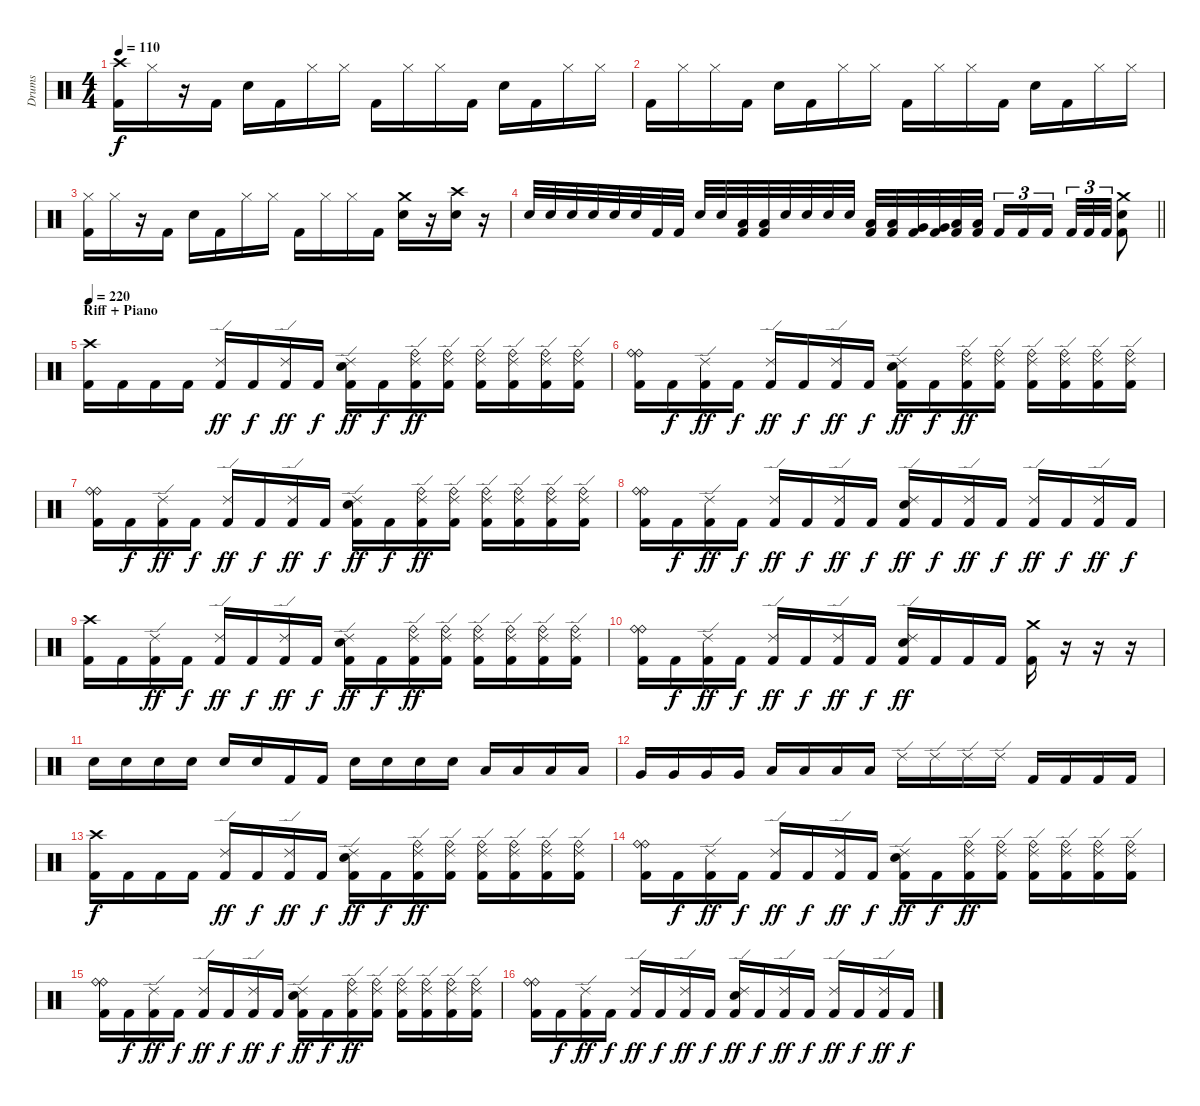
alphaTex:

\track ("Drums" "Drums") {instrument percussion}
\staff {score}
\articulation defaults
\ts (4 4)
\tempo 110
\clef neutral
\ks c
("Crash high (hit)" "Kick (hit) 2").16{dy f} "Hi-Hat (closed)".16 r.16 "Kick (hit) 2".16 "Electric Snare (hit)".16 "Kick (hit) 2".16 "Hi-Hat (closed)".16 "Hi-Hat (closed)".16 "Kick (hit) 2".16 "Hi-Hat (closed)".16 "Hi-Hat (closed)".16 "Kick (hit) 2".16 "Electric Snare (hit)".16 "Kick (hit) 2".16 "Hi-Hat (closed)".16 "Hi-Hat (closed)".16 |
"Kick (hit) 2".16 "Hi-Hat (closed)".16 "Hi-Hat (closed)".16 "Kick (hit) 2".16 "Electric Snare (hit)".16 "Kick (hit) 2".16 "Hi-Hat (closed)".16 "Hi-Hat (closed)".16 "Kick (hit) 2".16 "Hi-Hat (closed)".16 "Hi-Hat (closed)".16 "Kick (hit) 2".16 "Electric Snare (hit)".16 "Kick (hit) 2".16 "Hi-Hat (closed)".16 "Hi-Hat (closed)".16 |
("Hi-Hat (closed)" "Kick (hit) 2").16 "Hi-Hat (closed)".16 r.16 "Kick (hit) 2".16 "Electric Snare (hit)".16 "Kick (hit) 2".16 "Hi-Hat (closed)".16 "Hi-Hat (closed)".16 "Kick (hit) 2".16 "Hi-Hat (closed)".16 "Hi-Hat (closed)".16 "Kick (hit) 2".16 ("Crash medium (hit)" "Electric Snare (hit)").16 r.16 ("Crash high (hit)" "Electric Snare (hit)").16 r.16 |
\barLineRight lightlight "Electric Snare (hit)".32 "Electric Snare (hit)".32 "Electric Snare (hit)".32 "Electric Snare (hit)".32 "Electric Snare (hit)".32 "Electric Snare (hit)".32 "Kick (hit) 2".32 "Kick (hit) 2".32 "Electric Snare (hit)".32 "Electric Snare (hit)".32
("Low Tom (hit)" "Kick (hit) 2").32 ("Low Tom (hit)" "Kick (hit) 2").32 "Electric Snare (hit)".32 "Electric Snare (hit)".32 "Electric Snare (hit)".32 "Electric Snare (hit)".32 ("Low Tom (hit)" "Kick (hit) 2").32 ("Low Tom (hit)" "Kick (hit) 2").32 ("Very Low Tom (hit)" "Kick (hit) 2").32 ("Very Low Tom (hit)" "Kick (hit) 2").32 ("Low Floor Tom (hit)" "Kick (hit) 2").32 ("Low Floor Tom (hit)" "Kick (hit) 2").32{beam splitsecondary} "Kick (hit) 2".16{tu (3 2)} "Kick (hit) 2".16{tu (3 2)} "Kick (hit) 2".16{tu (3 2) beam splitsecondary} "Kick (hit) 2".32{tu (3 2)} "Kick (hit) 2".32{tu (3 2)} "Kick (hit) 2".32{tu (3 2)} ("Crash medium (hit)" "Electric Snare (hit)" "Kick (hit) 2").8 |
\section ("" "Riff + Piano")
\tempo 220
("Crash high (hit)" "Kick (hit) 2").16 "Kick (hit) 2".16 "Kick (hit) 2".16 "Kick (hit) 2".16 ("Ride (edge) 2" "Kick (hit) 2").16{dy ff} "Kick (hit) 2".16{dy f} ("Ride (edge) 2" "Kick (hit) 2").16{dy ff} "Kick (hit) 2".16{dy f} ("Ride (edge) 2" "Electric Snare (hit)" "Kick (hit) 2").16{dy ff} "Kick (hit) 2".16{dy f} ("Ride (bell)" "Ride (edge) 2" "Kick (hit) 2").16{dy ff} ("Ride (bell)" "Ride (edge) 2" "Kick (hit) 2").16 ("Ride (bell)" "Ride (edge) 2" "Kick (hit) 2").16 ("Ride (bell)" "Ride (edge) 2" "Kick (hit) 2").16 ("Ride (bell)" "Ride (edge) 2" "Kick (hit) 2").16 ("Ride (bell)" "Ride (edge) 2" "Kick (hit) 2").16 |
("Ride (bell)" "Ride (bell)" "Kick (hit) 2").16 "Kick (hit) 2".16{dy f} ("Ride (edge) 2" "Kick (hit) 2").16{dy ff} "Kick (hit) 2".16{dy f} ("Ride (edge) 2" "Kick (hit) 2").16{dy ff} "Kick (hit) 2".16{dy f} ("Ride (edge) 2" "Kick (hit) 2").16{dy ff} "Kick (hit) 2".16{dy f} ("Ride (edge) 2" "Electric Snare (hit)" "Kick (hit) 2").16{dy ff} "Kick (hit) 2".16{dy f} ("Ride (bell)" "Ride (edge) 2" "Kick (hit) 2").16{dy ff} ("Ride (bell)" "Ride (edge) 2" "Kick (hit) 2").16 ("Ride (bell)" "Ride (edge) 2" "Kick (hit) 2").16 ("Ride (bell)" "Ride (edge) 2" "Kick (hit) 2").16 ("Ride (bell)" "Ride (edge) 2" "Kick (hit) 2").16 ("Ride (bell)" "Ride (edge) 2" "Kick (hit) 2").16 |
("Ride (bell)" "Ride (bell)" "Kick (hit) 2").16 "Kick (hit) 2".16{dy f} ("Ride (edge) 2" "Kick (hit) 2").16{dy ff} "Kick (hit) 2".16{dy f} ("Ride (edge) 2" "Kick (hit) 2").16{dy ff} "Kick (hit) 2".16{dy f} ("Ride (edge) 2" "Kick (hit) 2").16{dy ff} "Kick (hit) 2".16{dy f} ("Ride (edge) 2" "Electric Snare (hit)" "Kick (hit) 2").16{dy ff} "Kick (hit) 2".16{dy f} ("Ride (bell)" "Ride (edge) 2" "Kick (hit) 2").16{dy ff} ("Ride (bell)" "Ride (edge) 2" "Kick (hit) 2").16 ("Ride (bell)" "Ride (edge) 2" "Kick (hit) 2").16 ("Ride (bell)" "Ride (edge) 2" "Kick (hit) 2").16 ("Ride (bell)" "Ride (edge) 2" "Kick (hit) 2").16 ("Ride (bell)" "Ride (edge) 2" "Kick (hit) 2").16 |
("Ride (bell)" "Ride (bell)" "Kick (hit) 2").16 "Kick (hit) 2".16{dy f} ("Ride (edge) 2" "Kick (hit) 2").16{dy ff} "Kick (hit) 2".16{dy f} ("Ride (edge) 2" "Kick (hit) 2").16{dy ff} "Kick (hit) 2".16{dy f} ("Ride (edge) 2" "Kick (hit) 2").16{dy ff} "Kick (hit) 2".16{dy f} ("Ride (edge) 2" "Electric Snare (hit)" "Kick (hit) 2").16{dy ff} "Kick (hit) 2".16{dy f} ("Ride (edge) 2" "Kick (hit) 2").16{dy ff} "Kick (hit) 2".16{dy f} ("Ride (edge) 2" "Kick (hit) 2").16{dy ff} "Kick (hit) 2".16{dy f} ("Ride (edge) 2" "Kick (hit) 2").16{dy ff} "Kick (hit) 2".16{dy f} |
("Crash high (hit)" "Kick (hit) 2").16 "Kick (hit) 2".16 ("Ride (edge) 2" "Kick (hit) 2").16{dy ff} "Kick (hit) 2".16{dy f} ("Ride (edge) 2" "Kick (hit) 2").16{dy ff} "Kick (hit) 2".16{dy f} ("Ride (edge) 2" "Kick (hit) 2").16{dy ff} "Kick (hit) 2".16{dy f} ("Ride (edge) 2" "Electric Snare (hit)" "Kick (hit) 2").16{dy ff} "Kick (hit) 2".16{dy f} ("Ride (bell)" "Ride (edge) 2" "Kick (hit) 2").16{dy ff} ("Ride (bell)" "Ride (edge) 2" "Kick (hit) 2").16 ("Ride (bell)" "Ride (edge) 2" "Kick (hit) 2").16 ("Ride (bell)" "Ride (edge) 2" "Kick (hit) 2").16 ("Ride (bell)" "Ride (edge) 2" "Kick (hit) 2").16 ("Ride (bell)" "Ride (edge) 2" "Kick (hit) 2").16 |
("Ride (bell)" "Ride (bell)" "Kick (hit) 2").16 "Kick (hit) 2".16{dy f} ("Ride (edge) 2" "Kick (hit) 2").16{dy ff} "Kick (hit) 2".16{dy f} ("Ride (edge) 2" "Kick (hit) 2").16{dy ff} "Kick (hit) 2".16{dy f} ("Ride (edge) 2" "Kick (hit) 2").16{dy ff} "Kick (hit) 2".16{dy f} ("Ride (edge) 2" "Electric Snare (hit)" "Kick (hit) 2").16{dy ff} "Kick (hit) 2".16 "Kick (hit) 2".16 "Kick (hit) 2".16 ("Crash medium (hit)" "Kick (hit) 2").16 r.16 r.16 r.16 |
"Electric Snare (hit)".16 "Electric Snare (hit)".16 "Electric Snare (hit)".16 "Electric Snare (hit)".16 "Electric Snare (hit)".16 "Electric Snare (hit)".16 "Kick (hit) 2".16 "Kick (hit) 2".16 "Electric Snare (hit)".16 "Electric Snare (hit)".16 "Electric Snare (hit)".16 "Electric Snare (hit)".16 "Low Tom (hit)".16 "Low Tom (hit)".16 "Low Tom (hit)".16 "Low Tom (hit)".16 |
"Very Low Tom (hit)".16 "Very Low Tom (hit)".16 "Very Low Tom (hit)".16 "Very Low Tom (hit)".16 "Low Floor Tom (hit)".16 "Low Floor Tom (hit)".16 "Low Floor Tom (hit)".16 "Low Floor Tom (hit)".16 "Ride (edge) 2".16 "Ride (edge) 2".16 "Ride (edge) 2".16 "Ride (edge) 2".16 "Kick (hit) 2".16 "Kick (hit) 2".16 "Kick (hit) 2".16 "Kick (hit) 2".16 |
("Crash high (hit)" "Kick (hit) 2").16{dy f} "Kick (hit) 2".16 "Kick (hit) 2".16 "Kick (hit) 2".16 ("Ride (edge) 2" "Kick (hit) 2").16{dy ff} "Kick (hit) 2".16{dy f} ("Ride (edge) 2" "Kick (hit) 2").16{dy ff} "Kick (hit) 2".16{dy f} ("Ride (edge) 2" "Electric Snare (hit)" "Kick (hit) 2").16{dy ff} "Kick (hit) 2".16{dy f} ("Ride (bell)" "Ride (edge) 2" "Kick (hit) 2").16{dy ff} ("Ride (bell)" "Ride (edge) 2" "Kick (hit) 2").16 ("Ride (bell)" "Ride (edge) 2" "Kick (hit) 2").16 ("Ride (bell)" "Ride (edge) 2" "Kick (hit) 2").16 ("Ride (bell)" "Ride (edge) 2" "Kick (hit) 2").16 ("Ride (bell)" "Ride (edge) 2" "Kick (hit) 2").16 |
("Ride (bell)" "Ride (bell)" "Kick (hit) 2").16 "Kick (hit) 2".16{dy f} ("Ride (edge) 2" "Kick (hit) 2").16{dy ff} "Kick (hit) 2".16{dy f} ("Ride (edge) 2" "Kick (hit) 2").16{dy ff} "Kick (hit) 2".16{dy f} ("Ride (edge) 2" "Kick (hit) 2").16{dy ff} "Kick (hit) 2".16{dy f} ("Ride (edge) 2" "Electric Snare (hit)" "Kick (hit) 2").16{dy ff} "Kick (hit) 2".16{dy f} ("Ride (bell)" "Ride (edge) 2" "Kick (hit) 2").16{dy ff} ("Ride (bell)" "Ride (edge) 2" "Kick (hit) 2").16 ("Ride (bell)" "Ride (edge) 2" "Kick (hit) 2").16 ("Ride (bell)" "Ride (edge) 2" "Kick (hit) 2").16 ("Ride (bell)" "Ride (edge) 2" "Kick (hit) 2").16 ("Ride (bell)" "Ride (edge) 2" "Kick (hit) 2").16 |
("Ride (bell)" "Ride (bell)" "Kick (hit) 2").16 "Kick (hit) 2".16{dy f} ("Ride (edge) 2" "Kick (hit) 2").16{dy ff} "Kick (hit) 2".16{dy f} ("Ride (edge) 2" "Kick (hit) 2").16{dy ff} "Kick (hit) 2".16{dy f} ("Ride (edge) 2" "Kick (hit) 2").16{dy ff} "Kick (hit) 2".16{dy f} ("Ride (edge) 2" "Electric Snare (hit)" "Kick (hit) 2").16{dy ff} "Kick (hit) 2".16{dy f} ("Ride (bell)" "Ride (edge) 2" "Kick (hit) 2").16{dy ff} ("Ride (bell)" "Ride (edge) 2" "Kick (hit) 2").16 ("Ride (bell)" "Ride (edge) 2" "Kick (hit) 2").16 ("Ride (bell)" "Ride (edge) 2" "Kick (hit) 2").16 ("Ride (bell)" "Ride (edge) 2" "Kick (hit) 2").16 ("Ride (bell)" "Ride (edge) 2" "Kick (hit) 2").16 |
("Ride (bell)" "Ride (bell)" "Kick (hit) 2").16 "Kick (hit) 2".16{dy f} ("Ride (edge) 2" "Kick (hit) 2").16{dy ff} "Kick (hit) 2".16{dy f} ("Ride (edge) 2" "Kick (hit) 2").16{dy ff} "Kick (hit) 2".16{dy f} ("Ride (edge) 2" "Kick (hit) 2").16{dy ff} "Kick (hit) 2".16{dy f} ("Ride (edge) 2" "Electric Snare (hit)" "Kick (hit) 2").16{dy ff} "Kick (hit) 2".16{dy f} ("Ride (edge) 2" "Kick (hit) 2").16{dy ff} "Kick (hit) 2".16{dy f} ("Ride (edge) 2" "Kick (hit) 2").16{dy ff} "Kick (hit) 2".16{dy f} ("Ride (edge) 2" "Kick (hit) 2").16{dy ff} "Kick (hit) 2".16{dy f}
